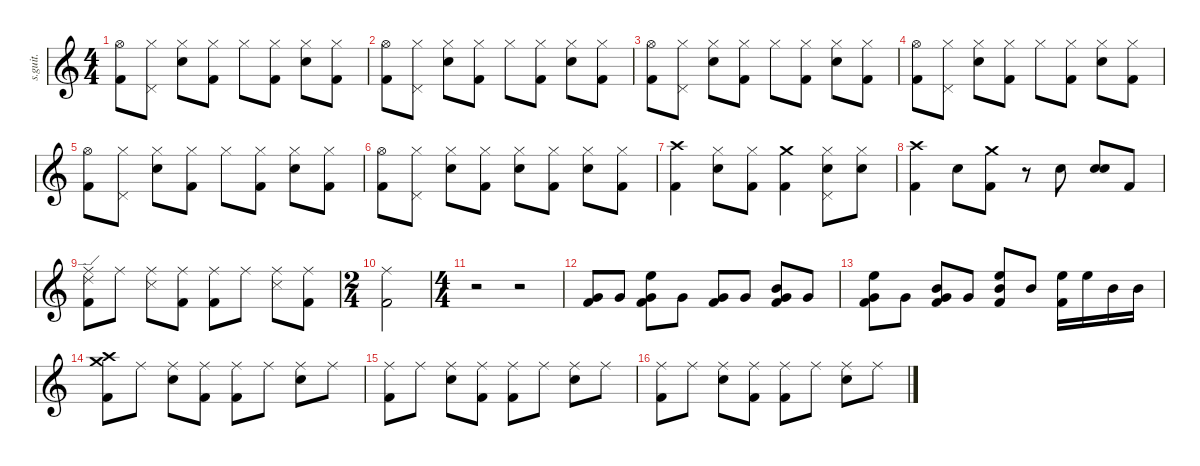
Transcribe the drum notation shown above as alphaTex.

\defaultSystemsLayout 4
\hideDynamics
\bracketExtendMode nobrackets
\track ("Jim Gordon (Drums)" "s.guit.") {instrument percussion}
\staff {score}
\articulation defaults
\ts (4 4)
\tempo (107 hide)
\clef g2
\ks c
("Hi-Hat (open)" "Kick (hit) 2").8{dy mp} ("Hi-Hat (closed)" "Pedal Hi-Hat (hit)").8 ("Snare (hit) 2" "Hi-Hat (closed)").8 ("Kick (hit) 2" "Hi-Hat (closed)").8 "Hi-Hat (closed)".8 ("Hi-Hat (closed)" "Kick (hit) 2").8 ("Snare (hit) 2" "Hi-Hat (closed)").8 ("Kick (hit) 2" "Hi-Hat (closed)").8 |
("Kick (hit) 2" "Hi-Hat (open)").8 ("Hi-Hat (closed)" "Pedal Hi-Hat (hit)").8 ("Snare (hit) 2" "Hi-Hat (closed)").8 ("Kick (hit) 2" "Hi-Hat (closed)").8 "Hi-Hat (closed)".8 ("Hi-Hat (closed)" "Kick (hit) 2").8 ("Snare (hit) 2" "Hi-Hat (closed)").8 ("Kick (hit) 2" "Hi-Hat (closed)").8 |
("Kick (hit) 2" "Hi-Hat (open)").8 ("Hi-Hat (closed)" "Pedal Hi-Hat (hit)").8 ("Snare (hit) 2" "Hi-Hat (closed)").8 ("Kick (hit) 2" "Hi-Hat (closed)").8 "Hi-Hat (closed)".8 ("Hi-Hat (closed)" "Kick (hit) 2").8 ("Snare (hit) 2" "Hi-Hat (closed)").8 ("Kick (hit) 2" "Hi-Hat (closed)").8 |
("Kick (hit) 2" "Hi-Hat (open)").8 ("Hi-Hat (closed)" "Pedal Hi-Hat (hit)").8 ("Snare (hit) 2" "Hi-Hat (closed)").8 ("Kick (hit) 2" "Hi-Hat (closed)").8 "Hi-Hat (closed)".8 ("Hi-Hat (closed)" "Kick (hit) 2").8 ("Snare (hit) 2" "Hi-Hat (closed)").8 ("Kick (hit) 2" "Hi-Hat (closed)").8 |
("Kick (hit) 2" "Hi-Hat (open)").8 ("Hi-Hat (closed)" "Pedal Hi-Hat (hit)").8 ("Snare (hit) 2" "Hi-Hat (closed)").8 ("Kick (hit) 2" "Hi-Hat (closed)").8 "Hi-Hat (closed)".8 ("Hi-Hat (closed)" "Kick (hit) 2").8 ("Snare (hit) 2" "Hi-Hat (closed)").8 ("Kick (hit) 2" "Hi-Hat (closed)").8 |
("Kick (hit) 2" "Hi-Hat (open)").8 ("Hi-Hat (closed)" "Pedal Hi-Hat (hit)").8 ("Snare (hit) 2" "Hi-Hat (closed)").8 ("Kick (hit) 2" "Hi-Hat (closed)").8 ("Snare (hit) 2" "Hi-Hat (closed)").8 ("Hi-Hat (closed)" "Kick (hit) 2").8 ("Snare (hit) 2" "Hi-Hat (closed)").8 ("Kick (hit) 2" "Hi-Hat (closed)").8 |
("Crash high (hit)" "Kick (hit) 2").4 ("Snare (hit) 2" "Hi-Hat (closed)").8 ("Kick (hit) 2" "Hi-Hat (closed)").8 ("Kick (hit) 2" "Crash medium (hit)").4 ("Snare (hit) 2" "Hi-Hat (closed)" "Pedal Hi-Hat (hit)").8 ("Snare (hit) 2" "Hi-Hat (closed)").8 |
("Crash high (hit)" "Kick (hit) 2").4 "Snare (hit) 2".8 ("Kick (hit) 2" "Crash medium (hit)").8 r.8 "Snare (hit) 2".8 ("Snare (hit) 2" "Snare (hit) 2").8 "Kick (hit) 2".8 |
("Ride (middle)" "Ride (edge) 2" "Kick (hit) 2").8 "Ride (middle)".8 ("Snare (side stick) 3" "Ride (middle)").8 ("Kick (hit) 2" "Ride (middle)").8 ("Ride (middle)" "Kick (hit) 2").8 "Ride (middle)".8 ("Snare (side stick) 3" "Ride (middle)").8 ("Kick (hit) 2" "Ride (middle)").8 |
\ts (2 4)
\beaming (8 2 2 2 2)
("Kick (hit) 2" "Ride (middle)").2 |
\ts (4 4)
\beaming (8 2 2 2 2)
r.2 r.2 |
("Very Low Tom (hit)" "Kick (hit) 2").8 "Very Low Tom (hit)".8 ("Very Low Tom (hit)" "High Floor Tom (hit)" "Kick (hit) 2").8 "Very Low Tom (hit)".8 ("Very Low Tom (hit)" "Kick (hit) 2").8 "Very Low Tom (hit)".8 ("Very Low Tom (hit)" "Mid Tom (hit)" "Kick (hit) 2").8 "Very Low Tom (hit)".8 |
("Very Low Tom (hit)" "High Floor Tom (hit)" "Kick (hit) 2").8 "Very Low Tom (hit)".8 ("Very Low Tom (hit)" "Mid Tom (hit)" "Kick (hit) 2").8 "Very Low Tom (hit)".8 ("Mid Tom (hit)" "High Floor Tom (hit)" "Kick (hit) 2").8 "Mid Tom (hit)".8 ("High Floor Tom (hit)" "Kick (hit) 2").16 "High Floor Tom (hit)".16 "Mid Tom (hit)".16 "Mid Tom (hit)".16 |
("Crash high (hit)" "Crash medium (hit)" "Kick (hit) 2").8 "Ride (middle)".8 ("Snare (hit) 2" "Ride (middle)").8 ("Kick (hit) 2" "Ride (middle)").8 ("Ride (middle)" "Kick (hit) 2").8 "Ride (middle)".8 ("Snare (hit) 2" "Ride (middle)").8 "Ride (middle)".8 |
("Ride (middle)" "Kick (hit) 2").8 "Ride (middle)".8 ("Snare (hit) 2" "Ride (middle)").8 ("Kick (hit) 2" "Ride (middle)").8 ("Ride (middle)" "Kick (hit) 2").8 "Ride (middle)".8 ("Snare (hit) 2" "Ride (middle)").8 "Ride (middle)".8 |
("Ride (middle)" "Kick (hit) 2").8 "Ride (middle)".8 ("Snare (hit) 2" "Ride (middle)").8 ("Kick (hit) 2" "Ride (middle)").8 ("Ride (middle)" "Kick (hit) 2").8 "Ride (middle)".8 ("Ride (middle)" "Snare (hit) 2").8 "Ride (middle)".8
